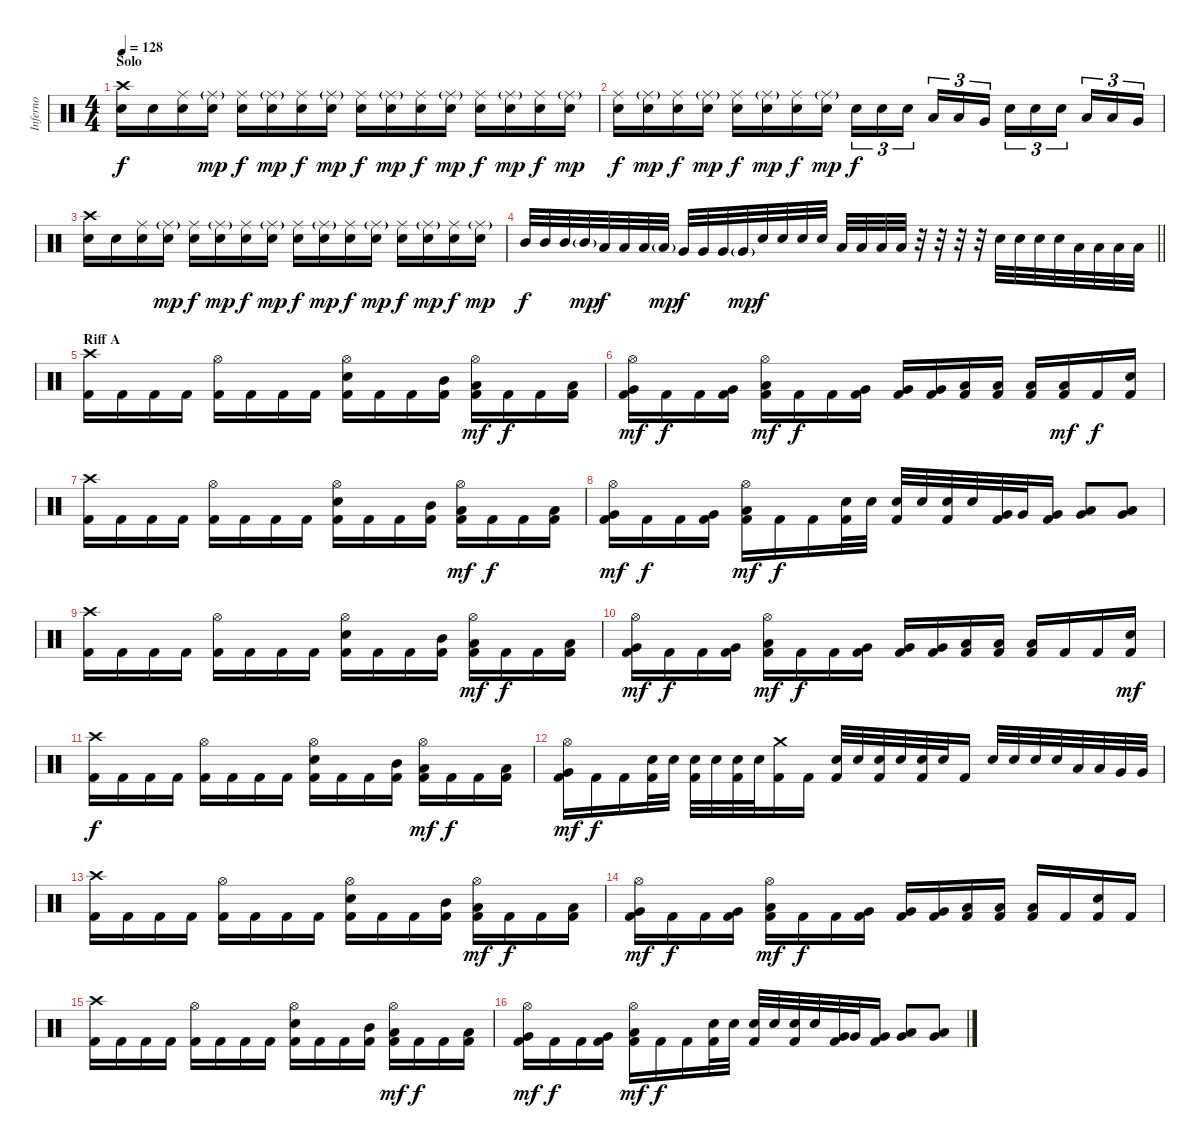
\track ("Inferno" "Inferno") {instrument percussion}
\staff {score}
\articulation defaults
\ts (4 4)
\section ("" "Solo")
\tempo 128
\clef neutral
\ks c
("Crash high (hit)" "Snare (hit) 2").16{dy f} "Snare (hit) 2".16 ("Ride (middle)" "Snare (hit) 2").16 ("Ride (middle)"{g} "Snare (hit) 2").16{dy mp} ("Ride (middle)" "Snare (hit) 2").16{dy f} ("Ride (middle)"{g} "Snare (hit) 2").16{dy mp} ("Ride (middle)" "Snare (hit) 2").16{dy f} ("Ride (middle)"{g} "Snare (hit) 2").16{dy mp} ("Ride (middle)" "Snare (hit) 2").16{dy f} ("Ride (middle)"{g} "Snare (hit) 2").16{dy mp} ("Ride (middle)" "Snare (hit) 2").16{dy f} ("Ride (middle)"{g} "Snare (hit) 2").16{dy mp} ("Ride (middle)" "Snare (hit) 2").16{dy f} ("Ride (middle)"{g} "Snare (hit) 2").16{dy mp} ("Ride (middle)" "Snare (hit) 2").16{dy f} ("Ride (middle)"{g} "Snare (hit) 2").16{dy mp} |
("Ride (middle)" "Snare (hit) 2").16{dy f} ("Ride (middle)"{g} "Snare (hit) 2").16{dy mp} ("Ride (middle)" "Snare (hit) 2").16{dy f} ("Ride (middle)"{g} "Snare (hit) 2").16{dy mp} ("Ride (middle)" "Snare (hit) 2").16{dy f} ("Ride (middle)"{g} "Snare (hit) 2").16{dy mp} ("Ride (middle)" "Snare (hit) 2").16{dy f} ("Ride (middle)"{g} "Snare (hit) 2").16{dy mp} "Snare (hit) 2".16{tu (3 2) dy f} "Snare (hit) 2".16{tu (3 2)} "Snare (hit) 2".16{tu (3 2) beam splitsecondary} "Low Tom (hit)".16{tu (3 2)} "Low Tom (hit)".16{tu (3 2)} "Very Low Tom (hit)".16{tu (3 2)} "Snare (hit) 2".16{tu (3 2)} "Snare (hit) 2".16{tu (3 2)} "Snare (hit) 2".16{tu (3 2) beam splitsecondary} "Low Tom (hit)".16{tu (3 2)} "Low Tom (hit)".16{tu (3 2)} "Very Low Tom (hit)".16{tu (3 2)} |
("Crash high (hit)" "Snare (hit) 2").16 "Snare (hit) 2".16 ("Ride (middle)" "Snare (hit) 2").16 ("Ride (middle)"{g} "Snare (hit) 2").16{dy mp} ("Ride (middle)" "Snare (hit) 2").16{dy f} ("Ride (middle)"{g} "Snare (hit) 2").16{dy mp} ("Ride (middle)" "Snare (hit) 2").16{dy f} ("Ride (middle)"{g} "Snare (hit) 2").16{dy mp} ("Ride (middle)" "Snare (hit) 2").16{dy f} ("Ride (middle)"{g} "Snare (hit) 2").16{dy mp} ("Ride (middle)" "Snare (hit) 2").16{dy f} ("Ride (middle)"{g} "Snare (hit) 2").16{dy mp} ("Ride (middle)" "Snare (hit) 2").16{dy f} ("Ride (middle)"{g} "Snare (hit) 2").16{dy mp} ("Ride (middle)" "Snare (hit) 2").16{dy f} ("Ride (middle)"{g} "Snare (hit) 2").16{dy mp} |
\barLineRight lightlight "Mid Tom (hit)".32{dy f} "Mid Tom (hit)".32 "Mid Tom (hit)".32 "Mid Tom (hit)"{g}.32{dy mp} "Low Tom (hit)".32{dy f} "Low Tom (hit)".32 "Low Tom (hit)".32 "Low Tom (hit)"{g}.32{dy mp} "Very Low Tom (hit)".32{dy f} "Very Low Tom (hit)".32 "Very Low Tom (hit)".32 "Very Low Tom (hit)"{g}.32{dy mp} "Snare (hit) 2".32{dy f} "Snare (hit) 2".32 "Snare (hit) 2".32 "Snare (hit) 2".32 "Low Floor Tom (hit)".32 "Low Floor Tom (hit)".32 "Low Floor Tom (hit)".32 "Low Floor Tom (hit)".32
r.32 r.32 r.32 r.32 "Snare (hit) 2".32 "Snare (hit) 2".32 "Snare (hit) 2".32 "Snare (hit) 2".32 "Low Tom (hit)".32 "Low Tom (hit)".32 "Low Tom (hit)".32 "Low Tom (hit)".32 |
\section ("" "Riff A")
("Crash high (hit)" "Kick (hit) 2").16 "Kick (hit) 2".16 "Kick (hit) 2".16 "Kick (hit) 2".16 ("Hi-Hat (open)" "Kick (hit) 2").16 "Kick (hit) 2".16 "Kick (hit) 2".16 "Kick (hit) 2".16 ("Hi-Hat (open)" "Snare (hit) 2" "Kick (hit) 2").16 "Kick (hit) 2".16 "Kick (hit) 2".16 ("Mid Tom (hit)" "Kick (hit) 2").16 ("Low Tom (hit)" "Hi-Hat (open)" "Kick (hit) 2").16{dy mf} "Kick (hit) 2".16{dy f} "Kick (hit) 2".16 ("Low Tom (hit)" "Kick (hit) 2").16 |
("Very Low Tom (hit)" "Hi-Hat (open)" "Kick (hit) 2").16{dy mf} "Kick (hit) 2".16{dy f} "Kick (hit) 2".16 ("Very Low Tom (hit)" "Kick (hit) 2").16 ("Hi-Hat (open)" "Low Floor Tom (hit)" "Kick (hit) 2").16{dy mf} "Kick (hit) 2".16{dy f} "Kick (hit) 2".16 ("Very Low Tom (hit)" "Kick (hit) 2").16 ("Very Low Tom (hit)" "Kick (hit) 2").16 ("Very Low Tom (hit)" "Kick (hit) 2").16 ("Low Floor Tom (hit)" "Kick (hit) 2").16 ("Low Floor Tom (hit)" "Kick (hit) 2").16 ("Low Floor Tom (hit)" "Kick (hit) 2").16 ("Low Floor Tom (hit)" "Kick (hit) 2").16{dy mf} "Kick (hit) 2".16{dy f} ("Snare (hit) 2" "Kick (hit) 2").16 |
("Crash high (hit)" "Kick (hit) 2").16 "Kick (hit) 2".16 "Kick (hit) 2".16 "Kick (hit) 2".16 ("Hi-Hat (open)" "Kick (hit) 2").16 "Kick (hit) 2".16 "Kick (hit) 2".16 "Kick (hit) 2".16 ("Hi-Hat (open)" "Snare (hit) 2" "Kick (hit) 2").16 "Kick (hit) 2".16 "Kick (hit) 2".16 ("Mid Tom (hit)" "Kick (hit) 2").16 ("Low Tom (hit)" "Hi-Hat (open)" "Kick (hit) 2").16{dy mf} "Kick (hit) 2".16{dy f} "Kick (hit) 2".16 ("Low Tom (hit)" "Kick (hit) 2").16 |
("Very Low Tom (hit)" "Hi-Hat (open)" "Kick (hit) 2").16{dy mf} "Kick (hit) 2".16{dy f} "Kick (hit) 2".16 ("Very Low Tom (hit)" "Kick (hit) 2").16 ("Hi-Hat (open)" "Low Floor Tom (hit)" "Kick (hit) 2").16{dy mf} "Kick (hit) 2".16{dy f} "Kick (hit) 2".16 ("Snare (hit) 2" "Kick (hit) 2").32 "Snare (hit) 2".32 ("Snare (hit) 2" "Kick (hit) 2").32 "Snare (hit) 2".32 ("Snare (hit) 2" "Kick (hit) 2").32 "Snare (hit) 2".32 ("Very Low Tom (hit)" "Kick (hit) 2").32 "Very Low Tom (hit)".32 ("Very Low Tom (hit)" "Kick (hit) 2").16 ("Very Low Tom (hit)" "Low Floor Tom (hit)").8 ("Very Low Tom (hit)" "Low Floor Tom (hit)").8 |
("Crash high (hit)" "Kick (hit) 2").16 "Kick (hit) 2".16 "Kick (hit) 2".16 "Kick (hit) 2".16 ("Hi-Hat (open)" "Kick (hit) 2").16 "Kick (hit) 2".16 "Kick (hit) 2".16 "Kick (hit) 2".16 ("Hi-Hat (open)" "Snare (hit) 2" "Kick (hit) 2").16 "Kick (hit) 2".16 "Kick (hit) 2".16 ("Mid Tom (hit)" "Kick (hit) 2").16 ("Low Tom (hit)" "Hi-Hat (open)" "Kick (hit) 2").16{dy mf} "Kick (hit) 2".16{dy f} "Kick (hit) 2".16 ("Low Tom (hit)" "Kick (hit) 2").16 |
("Very Low Tom (hit)" "Hi-Hat (open)" "Kick (hit) 2").16{dy mf} "Kick (hit) 2".16{dy f} "Kick (hit) 2".16 ("Very Low Tom (hit)" "Kick (hit) 2").16 ("Hi-Hat (open)" "Low Floor Tom (hit)" "Kick (hit) 2").16{dy mf} "Kick (hit) 2".16{dy f} "Kick (hit) 2".16 ("Very Low Tom (hit)" "Kick (hit) 2").16 ("Very Low Tom (hit)" "Kick (hit) 2").16 ("Very Low Tom (hit)" "Kick (hit) 2").16 ("Low Floor Tom (hit)" "Kick (hit) 2").16 ("Low Floor Tom (hit)" "Kick (hit) 2").16 ("Low Floor Tom (hit)" "Kick (hit) 2").16 "Kick (hit) 2".16 "Kick (hit) 2".16 ("Snare (hit) 2" "Kick (hit) 2").16{dy mf} |
("Crash high (hit)" "Kick (hit) 2").16{dy f} "Kick (hit) 2".16 "Kick (hit) 2".16 "Kick (hit) 2".16 ("Hi-Hat (open)" "Kick (hit) 2").16 "Kick (hit) 2".16 "Kick (hit) 2".16 "Kick (hit) 2".16 ("Hi-Hat (open)" "Snare (hit) 2" "Kick (hit) 2").16 "Kick (hit) 2".16 "Kick (hit) 2".16 ("Mid Tom (hit)" "Kick (hit) 2").16 ("Low Tom (hit)" "Hi-Hat (open)" "Kick (hit) 2").16{dy mf} "Kick (hit) 2".16{dy f} "Kick (hit) 2".16 ("Low Tom (hit)" "Kick (hit) 2").16 |
("Very Low Tom (hit)" "Hi-Hat (open)" "Kick (hit) 2").16{dy mf} "Kick (hit) 2".16{dy f} "Kick (hit) 2".16 ("Snare (hit) 2" "Kick (hit) 2").32 "Snare (hit) 2".32 ("Snare (hit) 2" "Kick (hit) 2").32 "Snare (hit) 2".32 ("Snare (hit) 2" "Kick (hit) 2").32 "Snare (hit) 2".32 ("Crash medium (hit)" "Kick (hit) 2").16 "Kick (hit) 2".16 ("Snare (hit) 2" "Kick (hit) 2").32 "Snare (hit) 2".32 ("Snare (hit) 2" "Kick (hit) 2").32 "Snare (hit) 2".32 ("Snare (hit) 2" "Kick (hit) 2").32 "Snare (hit) 2".32 "Kick (hit) 2".16 "Snare (hit) 2".32 "Snare (hit) 2".32 "Snare (hit) 2".32 "Snare (hit) 2".32 "Low Tom (hit)".32 "Low Tom (hit)".32 "Very Low Tom (hit)".32 "Very Low Tom (hit)".32 |
("Crash high (hit)" "Kick (hit) 2").16 "Kick (hit) 2".16 "Kick (hit) 2".16 "Kick (hit) 2".16 ("Hi-Hat (open)" "Kick (hit) 2").16 "Kick (hit) 2".16 "Kick (hit) 2".16 "Kick (hit) 2".16 ("Hi-Hat (open)" "Snare (hit) 2" "Kick (hit) 2").16 "Kick (hit) 2".16 "Kick (hit) 2".16 ("Mid Tom (hit)" "Kick (hit) 2").16 ("Low Tom (hit)" "Hi-Hat (open)" "Kick (hit) 2").16{dy mf} "Kick (hit) 2".16{dy f} "Kick (hit) 2".16 ("Low Tom (hit)" "Kick (hit) 2").16 |
("Very Low Tom (hit)" "Hi-Hat (open)" "Kick (hit) 2").16{dy mf} "Kick (hit) 2".16{dy f} "Kick (hit) 2".16 ("Very Low Tom (hit)" "Kick (hit) 2").16 ("Hi-Hat (open)" "Low Floor Tom (hit)" "Kick (hit) 2").16{dy mf} "Kick (hit) 2".16{dy f} "Kick (hit) 2".16 ("Very Low Tom (hit)" "Kick (hit) 2").16 ("Very Low Tom (hit)" "Kick (hit) 2").16 ("Very Low Tom (hit)" "Kick (hit) 2").16 ("Low Floor Tom (hit)" "Kick (hit) 2").16 ("Low Floor Tom (hit)" "Kick (hit) 2").16 ("Low Floor Tom (hit)" "Kick (hit) 2").16 "Kick (hit) 2".16 ("Snare (hit) 2" "Kick (hit) 2").16 "Kick (hit) 2".16 |
("Crash high (hit)" "Kick (hit) 2").16 "Kick (hit) 2".16 "Kick (hit) 2".16 "Kick (hit) 2".16 ("Hi-Hat (open)" "Kick (hit) 2").16 "Kick (hit) 2".16 "Kick (hit) 2".16 "Kick (hit) 2".16 ("Hi-Hat (open)" "Snare (hit) 2" "Kick (hit) 2").16 "Kick (hit) 2".16 "Kick (hit) 2".16 ("Mid Tom (hit)" "Kick (hit) 2").16 ("Low Tom (hit)" "Hi-Hat (open)" "Kick (hit) 2").16{dy mf} "Kick (hit) 2".16{dy f} "Kick (hit) 2".16 ("Low Tom (hit)" "Kick (hit) 2").16 |
("Very Low Tom (hit)" "Hi-Hat (open)" "Kick (hit) 2").16{dy mf} "Kick (hit) 2".16{dy f} "Kick (hit) 2".16 ("Very Low Tom (hit)" "Kick (hit) 2").16 ("Hi-Hat (open)" "Low Floor Tom (hit)" "Kick (hit) 2").16{dy mf} "Kick (hit) 2".16{dy f} "Kick (hit) 2".16 ("Snare (hit) 2" "Kick (hit) 2").32 "Snare (hit) 2".32 ("Snare (hit) 2" "Kick (hit) 2").32 "Snare (hit) 2".32 ("Snare (hit) 2" "Kick (hit) 2").32 "Snare (hit) 2".32 ("Very Low Tom (hit)" "Kick (hit) 2").32 "Very Low Tom (hit)".32 ("Very Low Tom (hit)" "Kick (hit) 2").16 ("Very Low Tom (hit)" "Low Floor Tom (hit)").8 ("Very Low Tom (hit)" "Low Floor Tom (hit)").8
